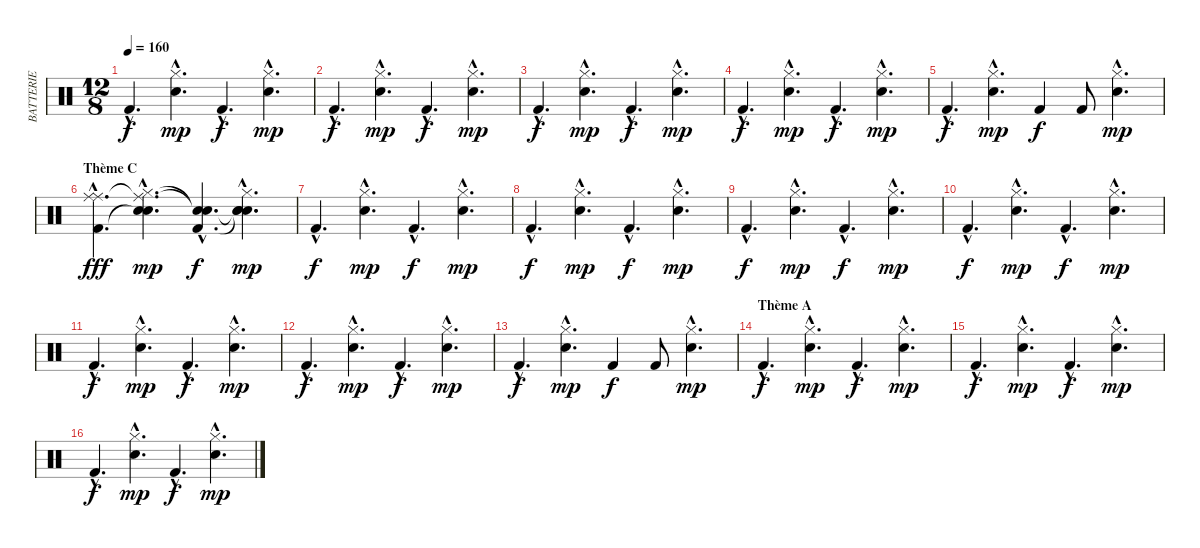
\track ("BATTERIE" "BATTERIE") {instrument percussion}
\staff {score}
\articulation defaults
\ts (12 8)
\tempo 160
\clef neutral
\ks c "Kick (hit) 2"{hac}.4{d dy f}
("Hi-Hat (closed)"{hac} "Snare (hit) 2"{hac}).4{d dy mp} "Kick (hit) 2"{hac}.4{d dy f} ("Hi-Hat (closed)"{hac} "Snare (hit) 2"{hac}).4{d dy mp} |
"Kick (hit) 2"{hac}.4{d dy f} ("Hi-Hat (closed)"{hac} "Snare (hit) 2"{hac}).4{d dy mp} "Kick (hit) 2"{hac}.4{d dy f} ("Hi-Hat (closed)"{hac} "Snare (hit) 2"{hac}).4{d dy mp} |
"Kick (hit) 2"{hac}.4{d dy f} ("Hi-Hat (closed)"{hac} "Snare (hit) 2"{hac}).4{d dy mp} "Kick (hit) 2"{hac}.4{d dy f} ("Hi-Hat (closed)"{hac} "Snare (hit) 2"{hac}).4{d dy mp} |
"Kick (hit) 2"{hac}.4{d dy f} ("Hi-Hat (closed)"{hac} "Snare (hit) 2"{hac}).4{d dy mp} "Kick (hit) 2"{hac}.4{d dy f} ("Hi-Hat (closed)"{hac} "Snare (hit) 2"{hac}).4{d dy mp} |
"Kick (hit) 2"{hac}.4{d dy f} ("Hi-Hat (closed)"{hac} "Snare (hit) 2"{hac}).4{d dy mp} "Kick (hit) 2".4{dy f} "Kick (hit) 2".8 ("Hi-Hat (closed)"{hac} "Snare (hit) 2"{hac}).4{d dy mp} |
\section ("" "Thème C")
("Ride (middle)"{hac} "Ride (middle)"{hac} "Kick (hit) 2"{hac}).4{d dy fff} ("Ride (middle)"{hac t} "Hi-Hat (closed)"{hac} "Snare (hit)"{hac t} "Snare (hit) 2"{hac}).4{d dy mp} ("Snare (hit)"{hac t} "Snare (hit)"{hac t} "Kick (hit) 2"{hac}).4{d dy f} ("Snare (hit)"{hac t} "Hi-Hat (closed)"{hac} "Snare (hit)"{hac t} "Snare (hit) 2"{hac}).4{d dy mp} |
"Kick (hit) 2"{hac}.4{d dy f} ("Hi-Hat (closed)"{hac} "Snare (hit) 2"{hac}).4{d dy mp} "Kick (hit) 2"{hac}.4{d dy f} ("Hi-Hat (closed)"{hac} "Snare (hit) 2"{hac}).4{d dy mp} |
"Kick (hit) 2"{hac}.4{d dy f} ("Hi-Hat (closed)"{hac} "Snare (hit) 2"{hac}).4{d dy mp} "Kick (hit) 2"{hac}.4{d dy f} ("Hi-Hat (closed)"{hac} "Snare (hit) 2"{hac}).4{d dy mp} |
"Kick (hit) 2"{hac}.4{d dy f} ("Hi-Hat (closed)"{hac} "Snare (hit) 2"{hac}).4{d dy mp} "Kick (hit) 2"{hac}.4{d dy f} ("Hi-Hat (closed)"{hac} "Snare (hit) 2"{hac}).4{d dy mp} |
"Kick (hit) 2"{hac}.4{d dy f} ("Hi-Hat (closed)"{hac} "Snare (hit) 2"{hac}).4{d dy mp} "Kick (hit) 2"{hac}.4{d dy f} ("Hi-Hat (closed)"{hac} "Snare (hit) 2"{hac}).4{d dy mp} |
"Kick (hit) 2"{hac}.4{d dy f} ("Hi-Hat (closed)"{hac} "Snare (hit) 2"{hac}).4{d dy mp} "Kick (hit) 2"{hac}.4{d dy f} ("Hi-Hat (closed)"{hac} "Snare (hit) 2"{hac}).4{d dy mp} |
"Kick (hit) 2"{hac}.4{d dy f} ("Hi-Hat (closed)"{hac} "Snare (hit) 2"{hac}).4{d dy mp} "Kick (hit) 2"{hac}.4{d dy f} ("Hi-Hat (closed)"{hac} "Snare (hit) 2"{hac}).4{d dy mp} |
"Kick (hit) 2"{hac}.4{d dy f} ("Hi-Hat (closed)"{hac} "Snare (hit) 2"{hac}).4{d dy mp} "Kick (hit) 2".4{dy f} "Kick (hit) 2".8 ("Hi-Hat (closed)"{hac} "Snare (hit) 2"{hac}).4{d dy mp} |
\section ("" "Thème A")
"Kick (hit) 2"{hac}.4{d dy f} ("Hi-Hat (closed)"{hac} "Snare (hit) 2"{hac}).4{d dy mp} "Kick (hit) 2"{hac}.4{d dy f} ("Hi-Hat (closed)"{hac} "Snare (hit) 2"{hac}).4{d dy mp} |
"Kick (hit) 2"{hac}.4{d dy f} ("Hi-Hat (closed)"{hac} "Snare (hit) 2"{hac}).4{d dy mp} "Kick (hit) 2"{hac}.4{d dy f} ("Hi-Hat (closed)"{hac} "Snare (hit) 2"{hac}).4{d dy mp} |
"Kick (hit) 2"{hac}.4{d dy f} ("Hi-Hat (closed)"{hac} "Snare (hit) 2"{hac}).4{d dy mp} "Kick (hit) 2"{hac}.4{d dy f} ("Hi-Hat (closed)"{hac} "Snare (hit) 2"{hac}).4{d dy mp}
